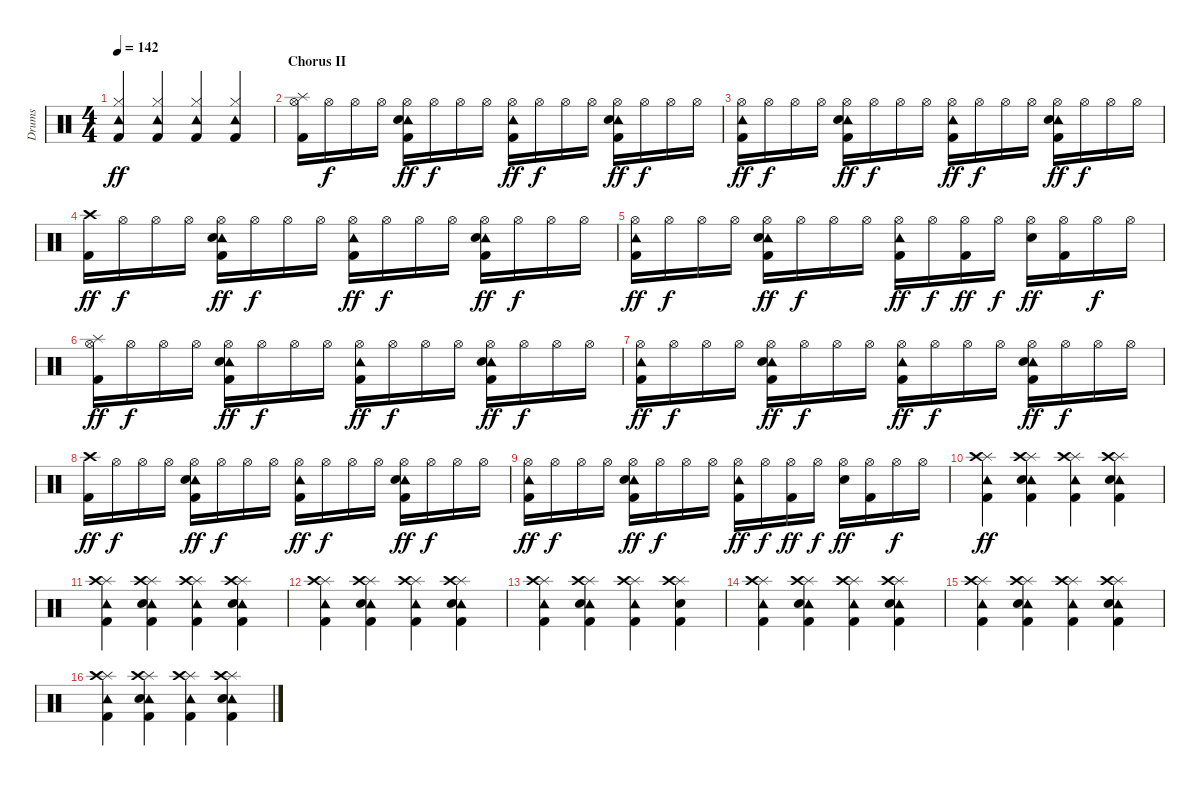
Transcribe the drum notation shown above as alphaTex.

\track ("Drums" "Drums") {instrument percussion}
\staff {score}
\articulation defaults
\ts (4 4)
\tempo 142
\clef neutral
\ks c
("Tambourine (hit)" "Hi-Hat (closed)" "Kick (hit) 2").4{dy ff} ("Tambourine (hit)" "Hi-Hat (closed)" "Kick (hit) 2").4 ("Tambourine (hit)" "Hi-Hat (closed)" "Kick (hit) 2").4 ("Tambourine (hit)" "Hi-Hat (closed)" "Kick (hit) 2").4 |
\section ("" "Chorus II")
("Hi-Hat (open)" "Splash (hit)" "Kick (hit) 2").16 "Hi-Hat (open)".16{dy f} "Hi-Hat (open)".16 "Hi-Hat (open)".16 ("Hi-Hat (open)" "Tambourine (hit)" "Snare (hit) 2" "Kick (hit) 2").16{dy ff} "Hi-Hat (open)".16{dy f} "Hi-Hat (open)".16 "Hi-Hat (open)".16 ("Hi-Hat (open)" "Tambourine (hit)" "Kick (hit) 2").16{dy ff} "Hi-Hat (open)".16{dy f} "Hi-Hat (open)".16 "Hi-Hat (open)".16 ("Hi-Hat (open)" "Tambourine (hit)" "Snare (hit) 2" "Kick (hit) 2").16{dy ff} "Hi-Hat (open)".16{dy f} "Hi-Hat (open)".16 "Hi-Hat (open)".16 |
("Hi-Hat (open)" "Tambourine (hit)" "Kick (hit) 2").16{dy ff} "Hi-Hat (open)".16{dy f} "Hi-Hat (open)".16 "Hi-Hat (open)".16 ("Hi-Hat (open)" "Tambourine (hit)" "Snare (hit) 2" "Kick (hit) 2").16{dy ff} "Hi-Hat (open)".16{dy f} "Hi-Hat (open)".16 "Hi-Hat (open)".16 ("Hi-Hat (open)" "Tambourine (hit)" "Kick (hit) 2").16{dy ff} "Hi-Hat (open)".16{dy f} "Hi-Hat (open)".16 "Hi-Hat (open)".16 ("Hi-Hat (open)" "Tambourine (hit)" "Snare (hit) 2" "Kick (hit) 2").16{dy ff} "Hi-Hat (open)".16{dy f} "Hi-Hat (open)".16 "Hi-Hat (open)".16 |
("Crash high (hit)" "Kick (hit) 2").16{dy ff} "Hi-Hat (open)".16{dy f} "Hi-Hat (open)".16 "Hi-Hat (open)".16 ("Hi-Hat (open)" "Tambourine (hit)" "Snare (hit) 2" "Kick (hit) 2").16{dy ff} "Hi-Hat (open)".16{dy f} "Hi-Hat (open)".16 "Hi-Hat (open)".16 ("Hi-Hat (open)" "Tambourine (hit)" "Kick (hit) 2").16{dy ff} "Hi-Hat (open)".16{dy f} "Hi-Hat (open)".16 "Hi-Hat (open)".16 ("Hi-Hat (open)" "Tambourine (hit)" "Snare (hit) 2" "Kick (hit) 2").16{dy ff} "Hi-Hat (open)".16{dy f} "Hi-Hat (open)".16 "Hi-Hat (open)".16 |
("Hi-Hat (open)" "Tambourine (hit)" "Kick (hit) 2").16{dy ff} "Hi-Hat (open)".16{dy f} "Hi-Hat (open)".16 "Hi-Hat (open)".16 ("Hi-Hat (open)" "Tambourine (hit)" "Snare (hit) 2" "Kick (hit) 2").16{dy ff} "Hi-Hat (open)".16{dy f} "Hi-Hat (open)".16 "Hi-Hat (open)".16 ("Hi-Hat (open)" "Tambourine (hit)" "Kick (hit) 2").16{dy ff} "Hi-Hat (open)".16{dy f} ("Hi-Hat (open)" "Kick (hit) 2").16{dy ff} "Hi-Hat (open)".16{dy f} ("Hi-Hat (open)" "Snare (hit) 2").16{dy ff} ("Hi-Hat (open)" "Kick (hit) 2").16 "Hi-Hat (open)".16{dy f} "Hi-Hat (open)".16 |
("Hi-Hat (open)" "Splash (hit)" "Kick (hit) 2").16{dy ff} "Hi-Hat (open)".16{dy f} "Hi-Hat (open)".16 "Hi-Hat (open)".16 ("Hi-Hat (open)" "Tambourine (hit)" "Snare (hit) 2" "Kick (hit) 2").16{dy ff} "Hi-Hat (open)".16{dy f} "Hi-Hat (open)".16 "Hi-Hat (open)".16 ("Hi-Hat (open)" "Tambourine (hit)" "Kick (hit) 2").16{dy ff} "Hi-Hat (open)".16{dy f} "Hi-Hat (open)".16 "Hi-Hat (open)".16 ("Hi-Hat (open)" "Tambourine (hit)" "Snare (hit) 2" "Kick (hit) 2").16{dy ff} "Hi-Hat (open)".16{dy f} "Hi-Hat (open)".16 "Hi-Hat (open)".16 |
("Hi-Hat (open)" "Tambourine (hit)" "Kick (hit) 2").16{dy ff} "Hi-Hat (open)".16{dy f} "Hi-Hat (open)".16 "Hi-Hat (open)".16 ("Hi-Hat (open)" "Tambourine (hit)" "Snare (hit) 2" "Kick (hit) 2").16{dy ff} "Hi-Hat (open)".16{dy f} "Hi-Hat (open)".16 "Hi-Hat (open)".16 ("Hi-Hat (open)" "Tambourine (hit)" "Kick (hit) 2").16{dy ff} "Hi-Hat (open)".16{dy f} "Hi-Hat (open)".16 "Hi-Hat (open)".16 ("Hi-Hat (open)" "Tambourine (hit)" "Snare (hit) 2" "Kick (hit) 2").16{dy ff} "Hi-Hat (open)".16{dy f} "Hi-Hat (open)".16 "Hi-Hat (open)".16 |
("Crash high (hit)" "Kick (hit) 2").16{dy ff} "Hi-Hat (open)".16{dy f} "Hi-Hat (open)".16 "Hi-Hat (open)".16 ("Hi-Hat (open)" "Tambourine (hit)" "Snare (hit) 2" "Kick (hit) 2").16{dy ff} "Hi-Hat (open)".16{dy f} "Hi-Hat (open)".16 "Hi-Hat (open)".16 ("Hi-Hat (open)" "Tambourine (hit)" "Kick (hit) 2").16{dy ff} "Hi-Hat (open)".16{dy f} "Hi-Hat (open)".16 "Hi-Hat (open)".16 ("Hi-Hat (open)" "Tambourine (hit)" "Snare (hit) 2" "Kick (hit) 2").16{dy ff} "Hi-Hat (open)".16{dy f} "Hi-Hat (open)".16 "Hi-Hat (open)".16 |
("Hi-Hat (open)" "Tambourine (hit)" "Kick (hit) 2").16{dy ff} "Hi-Hat (open)".16{dy f} "Hi-Hat (open)".16 "Hi-Hat (open)".16 ("Hi-Hat (open)" "Tambourine (hit)" "Snare (hit) 2" "Kick (hit) 2").16{dy ff} "Hi-Hat (open)".16{dy f} "Hi-Hat (open)".16 "Hi-Hat (open)".16 ("Hi-Hat (open)" "Tambourine (hit)" "Kick (hit) 2").16{dy ff} "Hi-Hat (open)".16{dy f} ("Hi-Hat (open)" "Kick (hit) 2").16{dy ff} "Hi-Hat (open)".16{dy f} ("Hi-Hat (open)" "Snare (hit) 2").16{dy ff} ("Hi-Hat (open)" "Kick (hit) 2").16 "Hi-Hat (open)".16{dy f} "Hi-Hat (open)".16 |
("Splash (hit)" "Crash high (hit)" "Tambourine (hit)" "Kick (hit) 2").4{dy ff} ("Splash (hit)" "Crash high (hit)" "Tambourine (hit)" "Snare (hit) 2" "Kick (hit) 2").4 ("Splash (hit)" "Crash high (hit)" "Tambourine (hit)" "Kick (hit) 2").4 ("Splash (hit)" "Crash high (hit)" "Tambourine (hit)" "Snare (hit) 2" "Kick (hit) 2").4 |
("Splash (hit)" "Crash high (hit)" "Tambourine (hit)" "Kick (hit) 2").4 ("Splash (hit)" "Crash high (hit)" "Tambourine (hit)" "Snare (hit) 2" "Kick (hit) 2").4 ("Splash (hit)" "Crash high (hit)" "Tambourine (hit)" "Kick (hit) 2").4 ("Splash (hit)" "Crash high (hit)" "Tambourine (hit)" "Snare (hit) 2" "Kick (hit) 2").4 |
("Splash (hit)" "Crash high (hit)" "Tambourine (hit)" "Kick (hit) 2").4 ("Splash (hit)" "Crash high (hit)" "Tambourine (hit)" "Snare (hit) 2" "Kick (hit) 2").4 ("Splash (hit)" "Crash high (hit)" "Tambourine (hit)" "Kick (hit) 2").4 ("Splash (hit)" "Crash high (hit)" "Tambourine (hit)" "Snare (hit) 2" "Kick (hit) 2").4 |
("Splash (hit)" "Crash high (hit)" "Tambourine (hit)" "Kick (hit) 2").4 ("Splash (hit)" "Crash high (hit)" "Tambourine (hit)" "Snare (hit) 2" "Kick (hit) 2").4 ("Splash (hit)" "Crash high (hit)" "Tambourine (hit)" "Kick (hit) 2").4 ("Splash (hit)" "Crash high (hit)" "Snare (hit) 2" "Kick (hit) 2").4 |
("Splash (hit)" "Crash high (hit)" "Tambourine (hit)" "Kick (hit) 2").4 ("Splash (hit)" "Crash high (hit)" "Tambourine (hit)" "Snare (hit) 2" "Kick (hit) 2").4 ("Splash (hit)" "Crash high (hit)" "Tambourine (hit)" "Kick (hit) 2").4 ("Splash (hit)" "Crash high (hit)" "Tambourine (hit)" "Snare (hit) 2" "Kick (hit) 2").4 |
("Splash (hit)" "Crash high (hit)" "Tambourine (hit)" "Kick (hit) 2").4 ("Splash (hit)" "Crash high (hit)" "Tambourine (hit)" "Snare (hit) 2" "Kick (hit) 2").4 ("Splash (hit)" "Crash high (hit)" "Tambourine (hit)" "Kick (hit) 2").4 ("Splash (hit)" "Crash high (hit)" "Tambourine (hit)" "Snare (hit) 2" "Kick (hit) 2").4 |
("Splash (hit)" "Crash high (hit)" "Tambourine (hit)" "Kick (hit) 2").4 ("Splash (hit)" "Crash high (hit)" "Tambourine (hit)" "Snare (hit) 2" "Kick (hit) 2").4 ("Splash (hit)" "Crash high (hit)" "Tambourine (hit)" "Kick (hit) 2").4 ("Splash (hit)" "Crash high (hit)" "Tambourine (hit)" "Snare (hit) 2" "Kick (hit) 2").4
